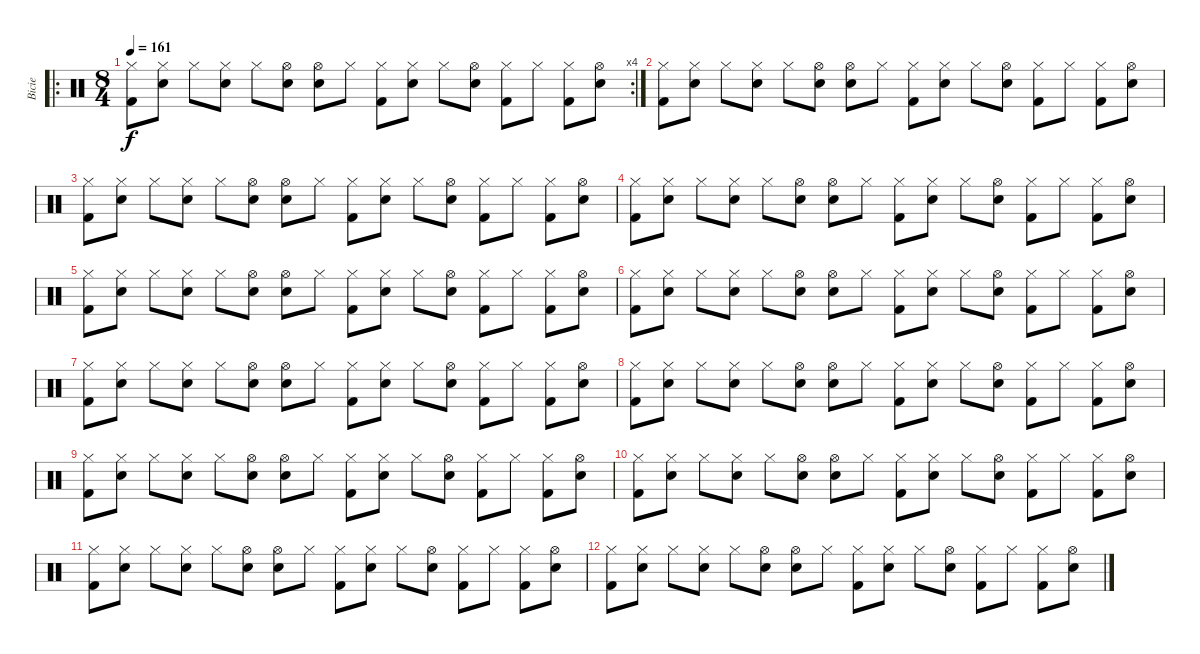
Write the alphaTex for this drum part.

\track ("Bicie" "Bicie") {instrument percussion}
\staff {score}
\articulation defaults
\ro
\rc 4
\ts (8 4)
\tempo 161
\clef neutral
\ks c
("Hi-Hat (closed)" "Kick (hit) 2").8{dy f} ("Hi-Hat (closed)" "Snare (hit) 2").8 "Hi-Hat (closed)".8 ("Hi-Hat (closed)" "Snare (hit) 2").8 "Hi-Hat (closed)".8 ("Hi-Hat (open)" "Snare (hit) 2").8 ("Hi-Hat (open)" "Snare (hit) 2").8 "Hi-Hat (closed)".8 ("Hi-Hat (closed)" "Kick (hit) 2").8 ("Hi-Hat (closed)" "Snare (hit) 2").8 "Hi-Hat (closed)".8 ("Hi-Hat (open)" "Snare (hit) 2").8 ("Hi-Hat (closed)" "Kick (hit) 2").8 "Hi-Hat (closed)".8 ("Hi-Hat (closed)" "Kick (hit) 2").8 ("Hi-Hat (open)" "Snare (hit) 2").8 |
("Hi-Hat (closed)" "Kick (hit) 2").8 ("Hi-Hat (closed)" "Snare (hit) 2").8 "Hi-Hat (closed)".8 ("Hi-Hat (closed)" "Snare (hit) 2").8 "Hi-Hat (closed)".8 ("Hi-Hat (open)" "Snare (hit) 2").8 ("Hi-Hat (open)" "Snare (hit) 2").8 "Hi-Hat (closed)".8 ("Hi-Hat (closed)" "Kick (hit) 2").8 ("Hi-Hat (closed)" "Snare (hit) 2").8 "Hi-Hat (closed)".8 ("Hi-Hat (open)" "Snare (hit) 2").8 ("Hi-Hat (closed)" "Kick (hit) 2").8 "Hi-Hat (closed)".8 ("Hi-Hat (closed)" "Kick (hit) 2").8 ("Hi-Hat (open)" "Snare (hit) 2").8 |
("Hi-Hat (closed)" "Kick (hit) 2").8 ("Hi-Hat (closed)" "Snare (hit) 2").8 "Hi-Hat (closed)".8 ("Hi-Hat (closed)" "Snare (hit) 2").8 "Hi-Hat (closed)".8 ("Hi-Hat (open)" "Snare (hit) 2").8 ("Hi-Hat (open)" "Snare (hit) 2").8 "Hi-Hat (closed)".8 ("Hi-Hat (closed)" "Kick (hit) 2").8 ("Hi-Hat (closed)" "Snare (hit) 2").8 "Hi-Hat (closed)".8 ("Hi-Hat (open)" "Snare (hit) 2").8 ("Hi-Hat (closed)" "Kick (hit) 2").8 "Hi-Hat (closed)".8 ("Hi-Hat (closed)" "Kick (hit) 2").8 ("Hi-Hat (open)" "Snare (hit) 2").8 |
("Hi-Hat (closed)" "Kick (hit) 2").8 ("Hi-Hat (closed)" "Snare (hit) 2").8 "Hi-Hat (closed)".8 ("Hi-Hat (closed)" "Snare (hit) 2").8 "Hi-Hat (closed)".8 ("Hi-Hat (open)" "Snare (hit) 2").8 ("Hi-Hat (open)" "Snare (hit) 2").8 "Hi-Hat (closed)".8 ("Hi-Hat (closed)" "Kick (hit) 2").8 ("Hi-Hat (closed)" "Snare (hit) 2").8 "Hi-Hat (closed)".8 ("Hi-Hat (open)" "Snare (hit) 2").8 ("Hi-Hat (closed)" "Kick (hit) 2").8 "Hi-Hat (closed)".8 ("Hi-Hat (closed)" "Kick (hit) 2").8 ("Hi-Hat (open)" "Snare (hit) 2").8 |
("Hi-Hat (closed)" "Kick (hit) 2").8 ("Hi-Hat (closed)" "Snare (hit) 2").8 "Hi-Hat (closed)".8 ("Hi-Hat (closed)" "Snare (hit) 2").8 "Hi-Hat (closed)".8 ("Hi-Hat (open)" "Snare (hit) 2").8 ("Hi-Hat (open)" "Snare (hit) 2").8 "Hi-Hat (closed)".8 ("Hi-Hat (closed)" "Kick (hit) 2").8 ("Hi-Hat (closed)" "Snare (hit) 2").8 "Hi-Hat (closed)".8 ("Hi-Hat (open)" "Snare (hit) 2").8 ("Hi-Hat (closed)" "Kick (hit) 2").8 "Hi-Hat (closed)".8 ("Hi-Hat (closed)" "Kick (hit) 2").8 ("Hi-Hat (open)" "Snare (hit) 2").8 |
("Hi-Hat (closed)" "Kick (hit) 2").8 ("Hi-Hat (closed)" "Snare (hit) 2").8 "Hi-Hat (closed)".8 ("Hi-Hat (closed)" "Snare (hit) 2").8 "Hi-Hat (closed)".8 ("Hi-Hat (open)" "Snare (hit) 2").8 ("Hi-Hat (open)" "Snare (hit) 2").8 "Hi-Hat (closed)".8 ("Hi-Hat (closed)" "Kick (hit) 2").8 ("Hi-Hat (closed)" "Snare (hit) 2").8 "Hi-Hat (closed)".8 ("Hi-Hat (open)" "Snare (hit) 2").8 ("Hi-Hat (closed)" "Kick (hit) 2").8 "Hi-Hat (closed)".8 ("Hi-Hat (closed)" "Kick (hit) 2").8 ("Hi-Hat (open)" "Snare (hit) 2").8 |
("Hi-Hat (closed)" "Kick (hit) 2").8 ("Hi-Hat (closed)" "Snare (hit) 2").8 "Hi-Hat (closed)".8 ("Hi-Hat (closed)" "Snare (hit) 2").8 "Hi-Hat (closed)".8 ("Hi-Hat (open)" "Snare (hit) 2").8 ("Hi-Hat (open)" "Snare (hit) 2").8 "Hi-Hat (closed)".8 ("Hi-Hat (closed)" "Kick (hit) 2").8 ("Hi-Hat (closed)" "Snare (hit) 2").8 "Hi-Hat (closed)".8 ("Hi-Hat (open)" "Snare (hit) 2").8 ("Hi-Hat (closed)" "Kick (hit) 2").8 "Hi-Hat (closed)".8 ("Hi-Hat (closed)" "Kick (hit) 2").8 ("Hi-Hat (open)" "Snare (hit) 2").8 |
("Hi-Hat (closed)" "Kick (hit) 2").8 ("Hi-Hat (closed)" "Snare (hit) 2").8 "Hi-Hat (closed)".8 ("Hi-Hat (closed)" "Snare (hit) 2").8 "Hi-Hat (closed)".8 ("Hi-Hat (open)" "Snare (hit) 2").8 ("Hi-Hat (open)" "Snare (hit) 2").8 "Hi-Hat (closed)".8 ("Hi-Hat (closed)" "Kick (hit) 2").8 ("Hi-Hat (closed)" "Snare (hit) 2").8 "Hi-Hat (closed)".8 ("Hi-Hat (open)" "Snare (hit) 2").8 ("Hi-Hat (closed)" "Kick (hit) 2").8 "Hi-Hat (closed)".8 ("Hi-Hat (closed)" "Kick (hit) 2").8 ("Hi-Hat (open)" "Snare (hit) 2").8 |
("Hi-Hat (closed)" "Kick (hit) 2").8 ("Hi-Hat (closed)" "Snare (hit) 2").8 "Hi-Hat (closed)".8 ("Hi-Hat (closed)" "Snare (hit) 2").8 "Hi-Hat (closed)".8 ("Hi-Hat (open)" "Snare (hit) 2").8 ("Hi-Hat (open)" "Snare (hit) 2").8 "Hi-Hat (closed)".8 ("Hi-Hat (closed)" "Kick (hit) 2").8 ("Hi-Hat (closed)" "Snare (hit) 2").8 "Hi-Hat (closed)".8 ("Hi-Hat (open)" "Snare (hit) 2").8 ("Hi-Hat (closed)" "Kick (hit) 2").8 "Hi-Hat (closed)".8 ("Hi-Hat (closed)" "Kick (hit) 2").8 ("Hi-Hat (open)" "Snare (hit) 2").8 |
("Hi-Hat (closed)" "Kick (hit) 2").8 ("Hi-Hat (closed)" "Snare (hit) 2").8 "Hi-Hat (closed)".8 ("Hi-Hat (closed)" "Snare (hit) 2").8 "Hi-Hat (closed)".8 ("Hi-Hat (open)" "Snare (hit) 2").8 ("Hi-Hat (open)" "Snare (hit) 2").8 "Hi-Hat (closed)".8 ("Hi-Hat (closed)" "Kick (hit) 2").8 ("Hi-Hat (closed)" "Snare (hit) 2").8 "Hi-Hat (closed)".8 ("Hi-Hat (open)" "Snare (hit) 2").8 ("Hi-Hat (closed)" "Kick (hit) 2").8 "Hi-Hat (closed)".8 ("Hi-Hat (closed)" "Kick (hit) 2").8 ("Hi-Hat (open)" "Snare (hit) 2").8 |
("Hi-Hat (closed)" "Kick (hit) 2").8 ("Hi-Hat (closed)" "Snare (hit) 2").8 "Hi-Hat (closed)".8 ("Hi-Hat (closed)" "Snare (hit) 2").8 "Hi-Hat (closed)".8 ("Hi-Hat (open)" "Snare (hit) 2").8 ("Hi-Hat (open)" "Snare (hit) 2").8 "Hi-Hat (closed)".8 ("Hi-Hat (closed)" "Kick (hit) 2").8 ("Hi-Hat (closed)" "Snare (hit) 2").8 "Hi-Hat (closed)".8 ("Hi-Hat (open)" "Snare (hit) 2").8 ("Hi-Hat (closed)" "Kick (hit) 2").8 "Hi-Hat (closed)".8 ("Hi-Hat (closed)" "Kick (hit) 2").8 ("Hi-Hat (open)" "Snare (hit) 2").8 |
("Hi-Hat (closed)" "Kick (hit) 2").8 ("Hi-Hat (closed)" "Snare (hit) 2").8 "Hi-Hat (closed)".8 ("Hi-Hat (closed)" "Snare (hit) 2").8 "Hi-Hat (closed)".8 ("Hi-Hat (open)" "Snare (hit) 2").8 ("Hi-Hat (open)" "Snare (hit) 2").8 "Hi-Hat (closed)".8 ("Hi-Hat (closed)" "Kick (hit) 2").8 ("Hi-Hat (closed)" "Snare (hit) 2").8 "Hi-Hat (closed)".8 ("Hi-Hat (open)" "Snare (hit) 2").8 ("Hi-Hat (closed)" "Kick (hit) 2").8 "Hi-Hat (closed)".8 ("Hi-Hat (closed)" "Kick (hit) 2").8 ("Hi-Hat (open)" "Snare (hit) 2").8
